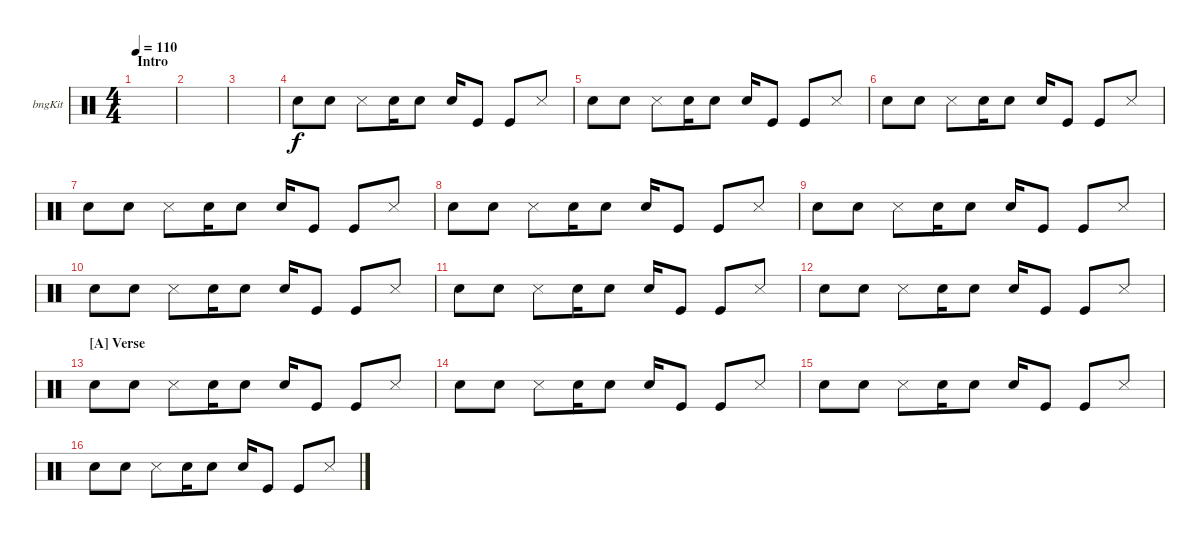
\defaultSystemsLayout 4
\bracketExtendMode groupsimilarinstruments
\firstSystemTrackNameOrientation horizontal
\otherSystemsTrackNameOrientation horizontal
\track ("Bongos" "bngKit") {instrument percussion}
\staff {score}
\articulation defaults
\ts (4 4)
\section ("" "Intro")
\tempo 110
\clef neutral
\scale
0.474178
\ks c
|
\scale
0.262911 |
\scale
0.262911 |
\scale
0.333333 "Snare (hit) 2".8 "Snare (hit) 2".8 "Snare (side stick) 3".8 "Snare (hit) 2".16 "Snare (hit) 2".8 "Snare (hit) 2".16 "Kick (hit)".8 "Kick (hit)".8 "Snare (side stick) 3".8 |
\scale
0.333333 "Snare (hit) 2".8 "Snare (hit) 2".8 "Snare (side stick) 3".8 "Snare (hit) 2".16 "Snare (hit) 2".8 "Snare (hit) 2".16 "Kick (hit)".8 "Kick (hit)".8 "Snare (side stick) 3".8 |
\scale
0.333333 "Snare (hit) 2".8 "Snare (hit) 2".8 "Snare (side stick) 3".8 "Snare (hit) 2".16 "Snare (hit) 2".8 "Snare (hit) 2".16 "Kick (hit)".8 "Kick (hit)".8 "Snare (side stick) 3".8 |
"Snare (hit) 2".8 "Snare (hit) 2".8 "Snare (side stick) 3".8 "Snare (hit) 2".16 "Snare (hit) 2".8 "Snare (hit) 2".16 "Kick (hit)".8 "Kick (hit)".8 "Snare (side stick) 3".8 |
"Snare (hit) 2".8 "Snare (hit) 2".8 "Snare (side stick) 3".8 "Snare (hit) 2".16 "Snare (hit) 2".8 "Snare (hit) 2".16 "Kick (hit)".8 "Kick (hit)".8 "Snare (side stick) 3".8 |
"Snare (hit) 2".8 "Snare (hit) 2".8 "Snare (side stick) 3".8 "Snare (hit) 2".16 "Snare (hit) 2".8 "Snare (hit) 2".16 "Kick (hit)".8 "Kick (hit)".8 "Snare (side stick) 3".8 |
"Snare (hit) 2".8 "Snare (hit) 2".8 "Snare (side stick) 3".8 "Snare (hit) 2".16 "Snare (hit) 2".8 "Snare (hit) 2".16 "Kick (hit)".8 "Kick (hit)".8 "Snare (side stick) 3".8 |
"Snare (hit) 2".8 "Snare (hit) 2".8 "Snare (side stick) 3".8 "Snare (hit) 2".16 "Snare (hit) 2".8 "Snare (hit) 2".16 "Kick (hit)".8 "Kick (hit)".8 "Snare (side stick) 3".8 |
"Snare (hit) 2".8 "Snare (hit) 2".8 "Snare (side stick) 3".8 "Snare (hit) 2".16 "Snare (hit) 2".8 "Snare (hit) 2".16 "Kick (hit)".8 "Kick (hit)".8 "Snare (side stick) 3".8 |
\section ("A" "Verse")
"Snare (hit) 2".8 "Snare (hit) 2".8 "Snare (side stick) 3".8 "Snare (hit) 2".16 "Snare (hit) 2".8 "Snare (hit) 2".16 "Kick (hit)".8 "Kick (hit)".8 "Snare (side stick) 3".8 |
"Snare (hit) 2".8 "Snare (hit) 2".8 "Snare (side stick) 3".8 "Snare (hit) 2".16 "Snare (hit) 2".8 "Snare (hit) 2".16 "Kick (hit)".8 "Kick (hit)".8 "Snare (side stick) 3".8 |
"Snare (hit) 2".8 "Snare (hit) 2".8 "Snare (side stick) 3".8 "Snare (hit) 2".16 "Snare (hit) 2".8 "Snare (hit) 2".16 "Kick (hit)".8 "Kick (hit)".8 "Snare (side stick) 3".8 |
"Snare (hit) 2".8 "Snare (hit) 2".8 "Snare (side stick) 3".8 "Snare (hit) 2".16 "Snare (hit) 2".8 "Snare (hit) 2".16 "Kick (hit)".8 "Kick (hit)".8 "Snare (side stick) 3".8
